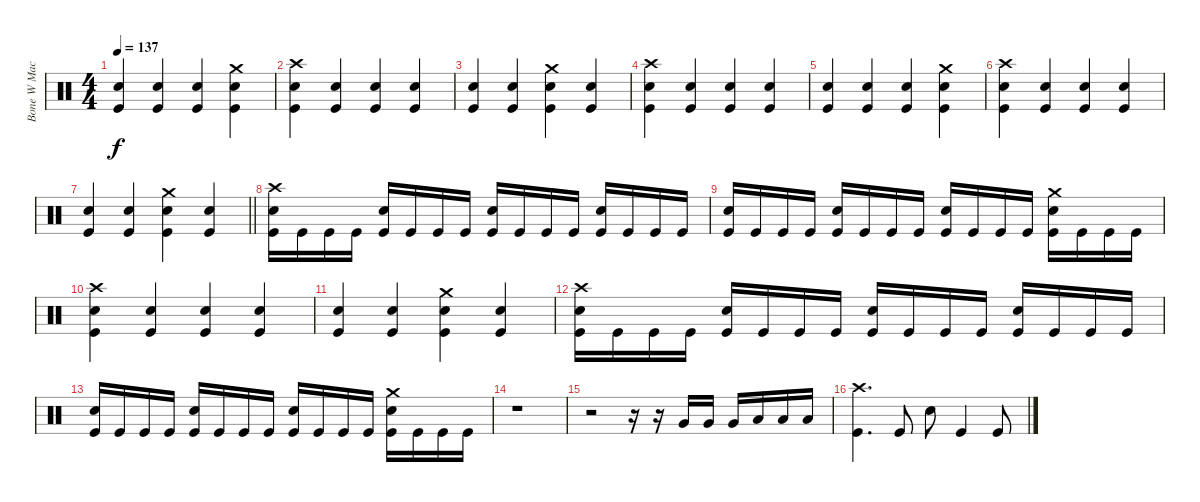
\track ("Bone W Machine Drums" "Bone W Mac") {instrument percussion}
\staff {score}
\articulation defaults
\ts (4 4)
\tempo 137
\clef neutral
\ks c
("Snare (hit) 2" "Kick (hit)").4{dy f} ("Snare (hit) 2" "Kick (hit)").4 ("Snare (hit) 2" "Kick (hit)").4 ("Crash medium (hit)" "Snare (hit) 2" "Kick (hit)").4 |
("Crash high (hit)" "Snare (hit) 2" "Kick (hit)").4 ("Snare (hit) 2" "Kick (hit)").4 ("Snare (hit) 2" "Kick (hit)").4 ("Snare (hit) 2" "Kick (hit)").4 |
("Snare (hit) 2" "Kick (hit)").4 ("Snare (hit) 2" "Kick (hit)").4 ("Crash medium (hit)" "Snare (hit) 2" "Kick (hit)").4 ("Snare (hit) 2" "Kick (hit)").4 |
("Crash high (hit)" "Snare (hit) 2" "Kick (hit)").4 ("Snare (hit) 2" "Kick (hit)").4 ("Snare (hit) 2" "Kick (hit)").4 ("Snare (hit) 2" "Kick (hit)").4 |
("Snare (hit) 2" "Kick (hit)").4 ("Snare (hit) 2" "Kick (hit)").4 ("Snare (hit) 2" "Kick (hit)").4 ("Crash medium (hit)" "Snare (hit) 2" "Kick (hit)").4 |
("Crash high (hit)" "Snare (hit) 2" "Kick (hit)").4 ("Snare (hit) 2" "Kick (hit)").4 ("Snare (hit) 2" "Kick (hit)").4 ("Snare (hit) 2" "Kick (hit)").4 |
\barLineRight lightlight
("Snare (hit) 2" "Kick (hit)").4 ("Snare (hit) 2" "Kick (hit)").4 ("Crash medium (hit)" "Snare (hit) 2" "Kick (hit)").4 ("Snare (hit) 2" "Kick (hit)").4 |
("Crash high (hit)" "Snare (hit) 2" "Kick (hit)").16 "Kick (hit)".16 "Kick (hit)".16 "Kick (hit)".16 ("Snare (hit) 2" "Kick (hit)").16 "Kick (hit)".16 "Kick (hit)".16 "Kick (hit)".16 ("Snare (hit) 2" "Kick (hit)").16 "Kick (hit)".16 "Kick (hit)".16 "Kick (hit)".16 ("Snare (hit) 2" "Kick (hit)").16 "Kick (hit)".16 "Kick (hit)".16 "Kick (hit)".16 |
("Snare (hit) 2" "Kick (hit)").16 "Kick (hit)".16 "Kick (hit)".16 "Kick (hit)".16 ("Snare (hit) 2" "Kick (hit)").16 "Kick (hit)".16 "Kick (hit)".16 "Kick (hit)".16 ("Snare (hit) 2" "Kick (hit)").16 "Kick (hit)".16 "Kick (hit)".16 "Kick (hit)".16 ("Crash medium (hit)" "Snare (hit) 2" "Kick (hit)").16 "Kick (hit)".16 "Kick (hit)".16 "Kick (hit)".16 |
("Crash high (hit)" "Snare (hit) 2" "Kick (hit)").4 ("Snare (hit) 2" "Kick (hit)").4 ("Snare (hit) 2" "Kick (hit)").4 ("Snare (hit) 2" "Kick (hit)").4 |
("Snare (hit) 2" "Kick (hit)").4 ("Snare (hit) 2" "Kick (hit)").4 ("Crash medium (hit)" "Snare (hit) 2" "Kick (hit)").4 ("Snare (hit) 2" "Kick (hit)").4 |
("Crash high (hit)" "Snare (hit) 2" "Kick (hit)").16 "Kick (hit)".16 "Kick (hit)".16 "Kick (hit)".16 ("Snare (hit) 2" "Kick (hit)").16 "Kick (hit)".16 "Kick (hit)".16 "Kick (hit)".16 ("Snare (hit) 2" "Kick (hit)").16 "Kick (hit)".16 "Kick (hit)".16 "Kick (hit)".16 ("Snare (hit) 2" "Kick (hit)").16 "Kick (hit)".16 "Kick (hit)".16 "Kick (hit)".16 |
("Snare (hit) 2" "Kick (hit)").16 "Kick (hit)".16 "Kick (hit)".16 "Kick (hit)".16 ("Snare (hit) 2" "Kick (hit)").16 "Kick (hit)".16 "Kick (hit)".16 "Kick (hit)".16 ("Snare (hit) 2" "Kick (hit)").16 "Kick (hit)".16 "Kick (hit)".16 "Kick (hit)".16 ("Crash medium (hit)" "Snare (hit) 2" "Kick (hit)").16 "Kick (hit)".16 "Kick (hit)".16 "Kick (hit)".16 |
r.1 |
r.2 r.16 r.16 "Very Low Tom (hit)".16 "Very Low Tom (hit)".16 "Very Low Tom (hit)".16 "Low Floor Tom (hit)".16 "Low Floor Tom (hit)".16 "Low Floor Tom (hit)".16 |
("Crash high (hit)" "Kick (hit)").4{d} "Kick (hit)".8 "Snare (hit) 2".8 "Kick (hit)".4 "Kick (hit)".8
